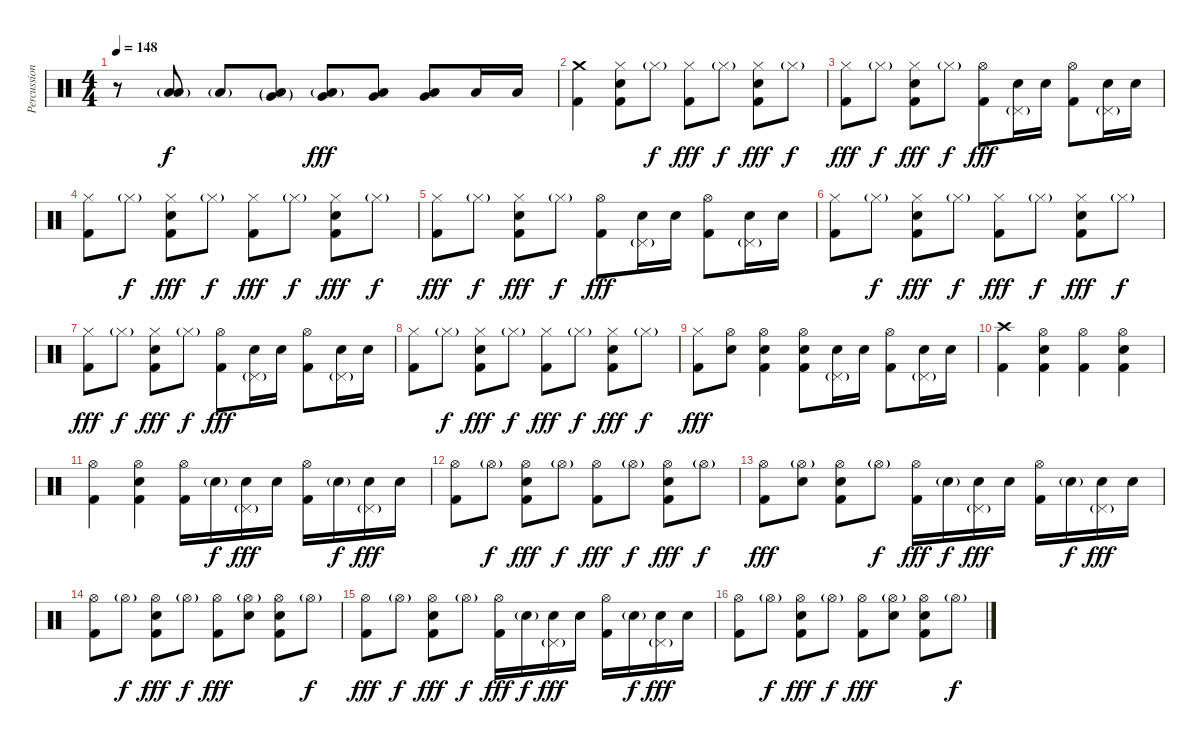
\track ("Percussion" "Percussion") {instrument percussion}
\staff {score}
\articulation defaults
\ts (4 4)
\tempo 148
\clef neutral
\ks c
r.8{dy fff} ("Low Floor Tom (hit)"{g} "Low Floor Tom (hit)"{g}).8{bd 480 dy f} "Low Floor Tom (hit)"{g}.8 ("Very Low Tom (hit)"{g} "Low Floor Tom (hit)"{g}).8{bd 120} ("Very Low Tom (hit)" "Low Floor Tom (hit)"{g}).8{bd 120 dy fff} ("Very Low Tom (hit)" "Low Floor Tom (hit)").8{bd 120} ("Very Low Tom (hit)" "Low Floor Tom (hit)").8{bd 120} "Low Floor Tom (hit)".16 "Low Floor Tom (hit)".16 |
("Crash medium (hit)" "Kick (hit) 2").4 ("Hi-Hat (closed)" "Kick (hit) 2" "Electric Snare (hit)").8 "Hi-Hat (closed)"{g}.8{dy f} ("Hi-Hat (closed)" "Kick (hit) 2").8{dy fff} "Hi-Hat (closed)"{g}.8{dy f} ("Hi-Hat (closed)" "Kick (hit) 2" "Electric Snare (hit)").8{dy fff} "Hi-Hat (closed)"{g}.8{dy f} |
("Hi-Hat (closed)" "Kick (hit) 2").8{dy fff} "Hi-Hat (closed)"{g}.8{dy f} ("Hi-Hat (closed)" "Kick (hit) 2" "Electric Snare (hit)").8{dy fff} "Hi-Hat (closed)"{g}.8{dy f} ("Hi-Hat (open)" "Kick (hit) 2").8{dy fff} ("Pedal Hi-Hat (hit)"{g} "Electric Snare (hit)").16 "Electric Snare (hit)".16 ("Hi-Hat (open)" "Kick (hit) 2").8 ("Pedal Hi-Hat (hit)"{g} "Electric Snare (hit)").16 "Electric Snare (hit)".16 |
("Hi-Hat (closed)" "Kick (hit) 2").8 "Hi-Hat (closed)"{g}.8{dy f} ("Hi-Hat (closed)" "Kick (hit) 2" "Electric Snare (hit)").8{dy fff} "Hi-Hat (closed)"{g}.8{dy f} ("Hi-Hat (closed)" "Kick (hit) 2").8{dy fff} "Hi-Hat (closed)"{g}.8{dy f} ("Hi-Hat (closed)" "Kick (hit) 2" "Electric Snare (hit)").8{dy fff} "Hi-Hat (closed)"{g}.8{dy f} |
("Hi-Hat (closed)" "Kick (hit) 2").8{dy fff} "Hi-Hat (closed)"{g}.8{dy f} ("Hi-Hat (closed)" "Kick (hit) 2" "Electric Snare (hit)").8{dy fff} "Hi-Hat (closed)"{g}.8{dy f} ("Hi-Hat (open)" "Kick (hit) 2").8{dy fff} ("Pedal Hi-Hat (hit)"{g} "Electric Snare (hit)").16 "Electric Snare (hit)".16 ("Hi-Hat (open)" "Kick (hit) 2").8 ("Pedal Hi-Hat (hit)"{g} "Electric Snare (hit)").16 "Electric Snare (hit)".16 |
("Hi-Hat (closed)" "Kick (hit) 2").8 "Hi-Hat (closed)"{g}.8{dy f} ("Hi-Hat (closed)" "Kick (hit) 2" "Electric Snare (hit)").8{dy fff} "Hi-Hat (closed)"{g}.8{dy f} ("Hi-Hat (closed)" "Kick (hit) 2").8{dy fff} "Hi-Hat (closed)"{g}.8{dy f} ("Hi-Hat (closed)" "Kick (hit) 2" "Electric Snare (hit)").8{dy fff} "Hi-Hat (closed)"{g}.8{dy f} |
("Hi-Hat (closed)" "Kick (hit) 2").8{dy fff} "Hi-Hat (closed)"{g}.8{dy f} ("Hi-Hat (closed)" "Kick (hit) 2" "Electric Snare (hit)").8{dy fff} "Hi-Hat (closed)"{g}.8{dy f} ("Hi-Hat (open)" "Kick (hit) 2").8{dy fff} ("Pedal Hi-Hat (hit)"{g} "Electric Snare (hit)").16 "Electric Snare (hit)".16 ("Hi-Hat (open)" "Kick (hit) 2").8 ("Pedal Hi-Hat (hit)"{g} "Electric Snare (hit)").16 "Electric Snare (hit)".16 |
("Hi-Hat (closed)" "Kick (hit) 2").8 "Hi-Hat (closed)"{g}.8{dy f} ("Hi-Hat (closed)" "Kick (hit) 2" "Electric Snare (hit)").8{dy fff} "Hi-Hat (closed)"{g}.8{dy f} ("Hi-Hat (closed)" "Kick (hit) 2").8{dy fff} "Hi-Hat (closed)"{g}.8{dy f} ("Hi-Hat (closed)" "Kick (hit) 2" "Electric Snare (hit)").8{dy fff} "Hi-Hat (closed)"{g}.8{dy f} |
("Hi-Hat (closed)" "Kick (hit) 2").8{dy fff} ("Hi-Hat (open)" "Electric Snare (hit)").8 ("Hi-Hat (open)" "Kick (hit) 2" "Electric Snare (hit)").4 ("Hi-Hat (open)" "Kick (hit) 2" "Electric Snare (hit)").8 ("Pedal Hi-Hat (hit)"{g} "Electric Snare (hit)").16 "Electric Snare (hit)".16 ("Hi-Hat (open)" "Kick (hit) 2").8 ("Pedal Hi-Hat (hit)"{g} "Electric Snare (hit)").16 "Electric Snare (hit)".16 |
("Crash high (hit)" "Kick (hit) 2").4 ("Hi-Hat (open)" "Kick (hit) 2" "Electric Snare (hit)").4 ("Hi-Hat (open)" "Kick (hit) 2").4 ("Hi-Hat (open)" "Kick (hit) 2" "Electric Snare (hit)").4 |
("Hi-Hat (open)" "Kick (hit) 2").4 ("Hi-Hat (open)" "Kick (hit) 2" "Electric Snare (hit)").4 ("Hi-Hat (open)" "Kick (hit) 2").16 "Electric Snare (hit)"{g}.16{dy f} ("Pedal Hi-Hat (hit)"{g} "Electric Snare (hit)").16{dy fff} "Electric Snare (hit)".16 ("Hi-Hat (open)" "Kick (hit) 2").16 "Electric Snare (hit)"{g}.16{dy f} ("Pedal Hi-Hat (hit)"{g} "Electric Snare (hit)").16{dy fff} "Electric Snare (hit)".16 |
("Hi-Hat (open)" "Kick (hit) 2").8 "Hi-Hat (open)"{g}.8{dy f} ("Hi-Hat (open)" "Kick (hit) 2" "Electric Snare (hit)").8{dy fff} "Hi-Hat (open)"{g}.8{dy f} ("Hi-Hat (open)" "Kick (hit) 2").8{dy fff} "Hi-Hat (open)"{g}.8{dy f} ("Hi-Hat (open)" "Kick (hit) 2" "Electric Snare (hit)").8{dy fff} "Hi-Hat (open)"{g}.8{dy f} |
("Hi-Hat (open)" "Kick (hit) 2").8{dy fff} ("Hi-Hat (open)"{g} "Electric Snare (hit)").8 ("Hi-Hat (open)" "Kick (hit) 2" "Electric Snare (hit)").8 "Hi-Hat (open)"{g}.8{dy f} ("Hi-Hat (open)" "Kick (hit) 2").16{dy fff} "Electric Snare (hit)"{g}.16{dy f} ("Pedal Hi-Hat (hit)"{g} "Electric Snare (hit)").16{dy fff} "Electric Snare (hit)".16 ("Hi-Hat (open)" "Kick (hit) 2").16 "Electric Snare (hit)"{g}.16{dy f} ("Pedal Hi-Hat (hit)"{g} "Electric Snare (hit)").16{dy fff} "Electric Snare (hit)".16 |
("Hi-Hat (open)" "Kick (hit) 2").8 "Hi-Hat (open)"{g}.8{dy f} ("Hi-Hat (open)" "Kick (hit) 2" "Electric Snare (hit)").8{dy fff} "Hi-Hat (open)"{g}.8{dy f} ("Hi-Hat (open)" "Kick (hit) 2").8{dy fff} ("Hi-Hat (open)"{g} "Electric Snare (hit)").8 ("Hi-Hat (open)" "Kick (hit) 2" "Electric Snare (hit)").8 "Hi-Hat (open)"{g}.8{dy f} |
("Hi-Hat (open)" "Kick (hit) 2").8{dy fff} "Hi-Hat (open)"{g}.8{dy f} ("Hi-Hat (open)" "Kick (hit) 2" "Electric Snare (hit)").8{dy fff} "Hi-Hat (open)"{g}.8{dy f} ("Hi-Hat (open)" "Kick (hit) 2").16{dy fff} "Electric Snare (hit)"{g}.16{dy f} ("Pedal Hi-Hat (hit)"{g} "Electric Snare (hit)").16{dy fff} "Electric Snare (hit)".16 ("Hi-Hat (open)" "Kick (hit) 2").16 "Electric Snare (hit)"{g}.16{dy f} ("Pedal Hi-Hat (hit)"{g} "Electric Snare (hit)").16{dy fff} "Electric Snare (hit)".16 |
("Hi-Hat (open)" "Kick (hit) 2").8 "Hi-Hat (open)"{g}.8{dy f} ("Hi-Hat (open)" "Kick (hit) 2" "Electric Snare (hit)").8{dy fff} "Hi-Hat (open)"{g}.8{dy f} ("Hi-Hat (open)" "Kick (hit) 2").8{dy fff} ("Hi-Hat (open)"{g} "Electric Snare (hit)").8 ("Hi-Hat (open)" "Kick (hit) 2" "Electric Snare (hit)").8 "Hi-Hat (open)"{g}.8{dy f}
